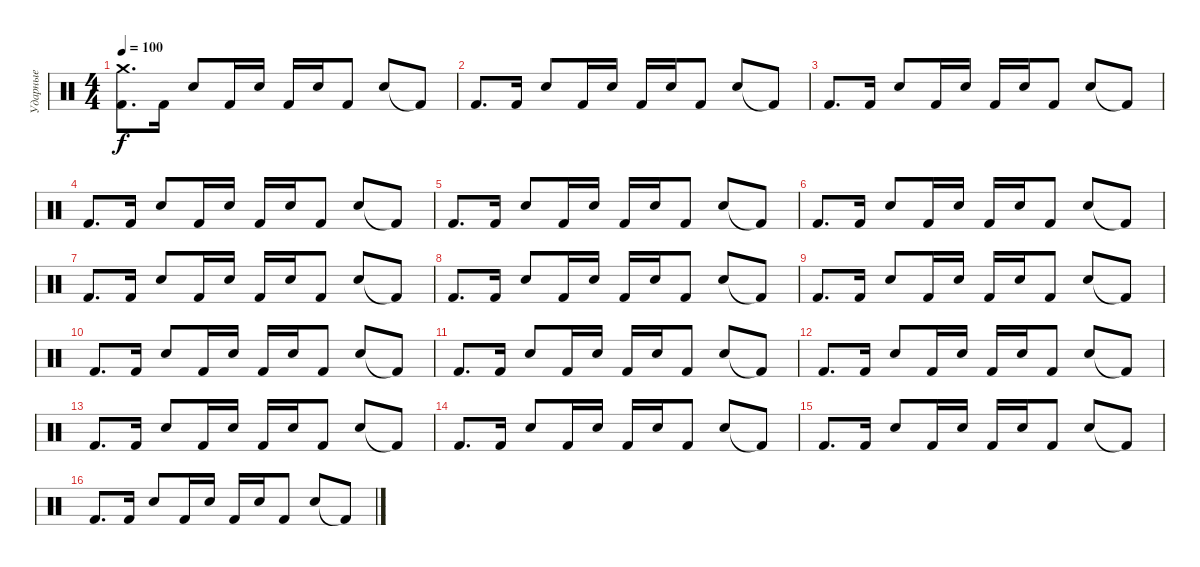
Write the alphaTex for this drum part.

\track ("Ударные" "Ударные") {instrument percussion}
\staff {score}
\articulation defaults
\ts (4 4)
\tempo 100
\clef neutral
\ks c
("Kick (hit) 2" "Crash medium (hit)").8{d dy f} "Kick (hit) 2".16 "Snare (hit) 2".8 "Kick (hit) 2".16 "Snare (hit) 2".16 "Kick (hit) 2".16 "Snare (hit) 2".16 "Kick (hit) 2".8 "Snare (hit) 2".8 "Kick (hit) 2"{t}.8 |
"Kick (hit) 2".8{d} "Kick (hit) 2".16 "Snare (hit) 2".8 "Kick (hit) 2".16 "Snare (hit) 2".16 "Kick (hit) 2".16 "Snare (hit) 2".16 "Kick (hit) 2".8 "Snare (hit) 2".8 "Kick (hit) 2"{t}.8 |
"Kick (hit) 2".8{d} "Kick (hit) 2".16 "Snare (hit) 2".8 "Kick (hit) 2".16 "Snare (hit) 2".16 "Kick (hit) 2".16 "Snare (hit) 2".16 "Kick (hit) 2".8 "Snare (hit) 2".8 "Kick (hit) 2"{t}.8 |
"Kick (hit) 2".8{d} "Kick (hit) 2".16 "Snare (hit) 2".8 "Kick (hit) 2".16 "Snare (hit) 2".16 "Kick (hit) 2".16 "Snare (hit) 2".16 "Kick (hit) 2".8 "Snare (hit) 2".8 "Kick (hit) 2"{t}.8 |
"Kick (hit) 2".8{d} "Kick (hit) 2".16 "Snare (hit) 2".8 "Kick (hit) 2".16 "Snare (hit) 2".16 "Kick (hit) 2".16 "Snare (hit) 2".16 "Kick (hit) 2".8 "Snare (hit) 2".8 "Kick (hit) 2"{t}.8 |
"Kick (hit) 2".8{d} "Kick (hit) 2".16 "Snare (hit) 2".8 "Kick (hit) 2".16 "Snare (hit) 2".16 "Kick (hit) 2".16 "Snare (hit) 2".16 "Kick (hit) 2".8 "Snare (hit) 2".8 "Kick (hit) 2"{t}.8 |
"Kick (hit) 2".8{d} "Kick (hit) 2".16 "Snare (hit) 2".8 "Kick (hit) 2".16 "Snare (hit) 2".16 "Kick (hit) 2".16 "Snare (hit) 2".16 "Kick (hit) 2".8 "Snare (hit) 2".8 "Kick (hit) 2"{t}.8 |
"Kick (hit) 2".8{d} "Kick (hit) 2".16 "Snare (hit) 2".8 "Kick (hit) 2".16 "Snare (hit) 2".16 "Kick (hit) 2".16 "Snare (hit) 2".16 "Kick (hit) 2".8 "Snare (hit) 2".8 "Kick (hit) 2"{t}.8 |
"Kick (hit) 2".8{d} "Kick (hit) 2".16 "Snare (hit) 2".8 "Kick (hit) 2".16 "Snare (hit) 2".16 "Kick (hit) 2".16 "Snare (hit) 2".16 "Kick (hit) 2".8 "Snare (hit) 2".8 "Kick (hit) 2"{t}.8 |
"Kick (hit) 2".8{d} "Kick (hit) 2".16 "Snare (hit) 2".8 "Kick (hit) 2".16 "Snare (hit) 2".16 "Kick (hit) 2".16 "Snare (hit) 2".16 "Kick (hit) 2".8 "Snare (hit) 2".8 "Kick (hit) 2"{t}.8 |
"Kick (hit) 2".8{d} "Kick (hit) 2".16 "Snare (hit) 2".8 "Kick (hit) 2".16 "Snare (hit) 2".16 "Kick (hit) 2".16 "Snare (hit) 2".16 "Kick (hit) 2".8 "Snare (hit) 2".8 "Kick (hit) 2"{t}.8 |
"Kick (hit) 2".8{d} "Kick (hit) 2".16 "Snare (hit) 2".8 "Kick (hit) 2".16 "Snare (hit) 2".16 "Kick (hit) 2".16 "Snare (hit) 2".16 "Kick (hit) 2".8 "Snare (hit) 2".8 "Kick (hit) 2"{t}.8 |
"Kick (hit) 2".8{d} "Kick (hit) 2".16 "Snare (hit) 2".8 "Kick (hit) 2".16 "Snare (hit) 2".16 "Kick (hit) 2".16 "Snare (hit) 2".16 "Kick (hit) 2".8 "Snare (hit) 2".8 "Kick (hit) 2"{t}.8 |
"Kick (hit) 2".8{d} "Kick (hit) 2".16 "Snare (hit) 2".8 "Kick (hit) 2".16 "Snare (hit) 2".16 "Kick (hit) 2".16 "Snare (hit) 2".16 "Kick (hit) 2".8 "Snare (hit) 2".8 "Kick (hit) 2"{t}.8 |
"Kick (hit) 2".8{d} "Kick (hit) 2".16 "Snare (hit) 2".8 "Kick (hit) 2".16 "Snare (hit) 2".16 "Kick (hit) 2".16 "Snare (hit) 2".16 "Kick (hit) 2".8 "Snare (hit) 2".8 "Kick (hit) 2"{t}.8 |
"Kick (hit) 2".8{d} "Kick (hit) 2".16 "Snare (hit) 2".8 "Kick (hit) 2".16 "Snare (hit) 2".16 "Kick (hit) 2".16 "Snare (hit) 2".16 "Kick (hit) 2".8 "Snare (hit) 2".8 "Kick (hit) 2"{t}.8
